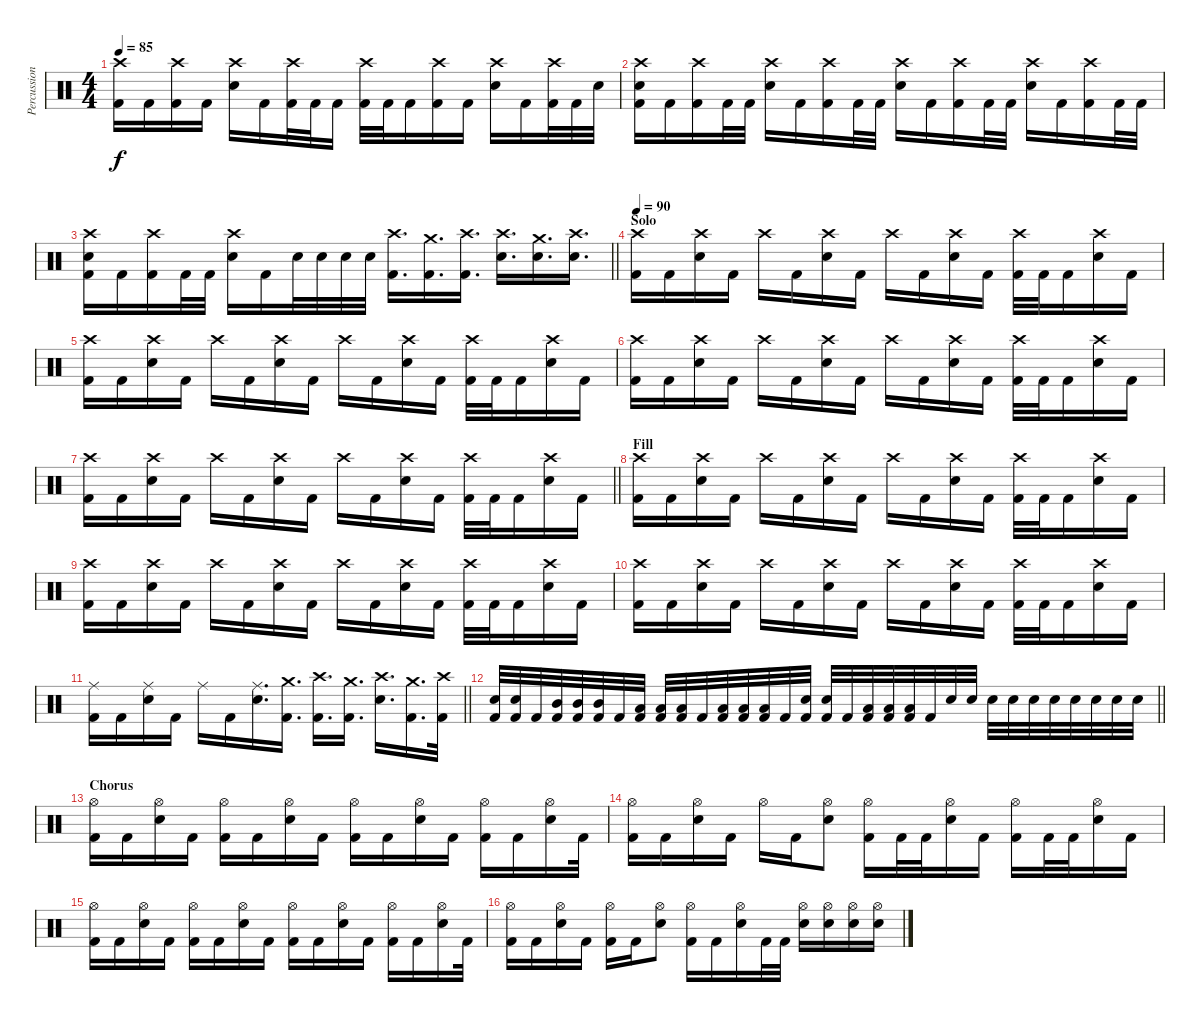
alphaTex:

\track ("Percussion" "Percussion") {instrument percussion}
\staff {score}
\articulation defaults
\ts (4 4)
\tempo 85
\clef neutral
\ks c
("Crash high (hit)" "Kick (hit) 2").16{dy f} "Kick (hit) 2".16 ("Crash high (hit)" "Kick (hit) 2").16 "Kick (hit) 2".16 ("Crash high (hit)" "Snare (hit) 2").16 "Kick (hit) 2".16 ("Crash high (hit)" "Kick (hit) 2").32 "Kick (hit) 2".32 "Kick (hit) 2".16 ("Crash high (hit)" "Kick (hit) 2").32 "Kick (hit) 2".32 "Kick (hit) 2".16 ("Crash high (hit)" "Kick (hit) 2").16 "Kick (hit) 2".16 ("Crash high (hit)" "Snare (hit) 2").16 "Kick (hit) 2".16 ("Crash high (hit)" "Kick (hit) 2").32 "Kick (hit) 2".32 "Snare (hit) 2".32 |
("Crash high (hit)" "Snare (hit) 2" "Kick (hit) 2").16 "Kick (hit) 2".16 ("Crash high (hit)" "Kick (hit) 2").16 "Kick (hit) 2".32 "Kick (hit) 2".32 ("Crash high (hit)" "Snare (hit) 2").16 "Kick (hit) 2".16 ("Crash high (hit)" "Kick (hit) 2").16 "Kick (hit) 2".32 "Kick (hit) 2".32 ("Crash high (hit)" "Snare (hit) 2").16 "Kick (hit) 2".16 ("Crash high (hit)" "Kick (hit) 2").16 "Kick (hit) 2".32 "Kick (hit) 2".32 ("Crash high (hit)" "Snare (hit) 2").16 "Kick (hit) 2".16 ("Crash high (hit)" "Kick (hit) 2").16 "Kick (hit) 2".32 "Kick (hit) 2".32 |
\barLineRight lightlight
("Crash high (hit)" "Snare (hit) 2" "Kick (hit) 2").16 "Kick (hit) 2".16 ("Crash high (hit)" "Kick (hit) 2").16 "Kick (hit) 2".32 "Kick (hit) 2".32 ("Crash high (hit)" "Snare (hit) 2").16 "Kick (hit) 2".16 "Snare (hit) 2".32 "Snare (hit) 2".32 "Snare (hit) 2".32 "Snare (hit) 2".32 ("Crash high (hit)" "Kick (hit) 2").16{d} ("Crash medium (hit)" "Kick (hit) 2").16{d} ("Crash high (hit)" "Kick (hit) 2").16{d} ("Crash high (hit)" "Snare (hit) 2").16{d} ("Crash medium (hit)" "Snare (hit) 2").16{d} ("Crash high (hit)" "Snare (hit) 2").16{d} |
\section ("" "Solo")
\tempo 90
("Crash high (hit)" "Kick (hit) 2").16 "Kick (hit) 2".16 ("Crash high (hit)" "Snare (hit) 2").16 "Kick (hit) 2".16 "Crash high (hit)".16 "Kick (hit) 2".16 ("Crash high (hit)" "Snare (hit) 2").16 "Kick (hit) 2".16 "Crash high (hit)".16 "Kick (hit) 2".16 ("Crash high (hit)" "Snare (hit) 2").16 "Kick (hit) 2".16 ("Crash high (hit)" "Kick (hit) 2").32 "Kick (hit) 2".32 "Kick (hit) 2".16 ("Crash high (hit)" "Snare (hit) 2").16 "Kick (hit) 2".16 |
("Crash high (hit)" "Kick (hit) 2").16 "Kick (hit) 2".16 ("Crash high (hit)" "Snare (hit) 2").16 "Kick (hit) 2".16 "Crash high (hit)".16 "Kick (hit) 2".16 ("Crash high (hit)" "Snare (hit) 2").16 "Kick (hit) 2".16 "Crash high (hit)".16 "Kick (hit) 2".16 ("Crash high (hit)" "Snare (hit) 2").16 "Kick (hit) 2".16 ("Crash high (hit)" "Kick (hit) 2").32 "Kick (hit) 2".32 "Kick (hit) 2".16 ("Crash high (hit)" "Snare (hit) 2").16 "Kick (hit) 2".16 |
("Crash high (hit)" "Kick (hit) 2").16 "Kick (hit) 2".16 ("Crash high (hit)" "Snare (hit) 2").16 "Kick (hit) 2".16 "Crash high (hit)".16 "Kick (hit) 2".16 ("Crash high (hit)" "Snare (hit) 2").16 "Kick (hit) 2".16 "Crash high (hit)".16 "Kick (hit) 2".16 ("Crash high (hit)" "Snare (hit) 2").16 "Kick (hit) 2".16 ("Crash high (hit)" "Kick (hit) 2").32 "Kick (hit) 2".32 "Kick (hit) 2".16 ("Crash high (hit)" "Snare (hit) 2").16 "Kick (hit) 2".16 |
\barLineRight lightlight
("Crash high (hit)" "Kick (hit) 2").16 "Kick (hit) 2".16 ("Crash high (hit)" "Snare (hit) 2").16 "Kick (hit) 2".16 "Crash high (hit)".16 "Kick (hit) 2".16 ("Crash high (hit)" "Snare (hit) 2").16 "Kick (hit) 2".16 "Crash high (hit)".16 "Kick (hit) 2".16 ("Crash high (hit)" "Snare (hit) 2").16 "Kick (hit) 2".16 ("Crash high (hit)" "Kick (hit) 2").32 "Kick (hit) 2".32 "Kick (hit) 2".16 ("Crash high (hit)" "Snare (hit) 2").16 "Kick (hit) 2".16 |
\section ("" "Fill")
("Crash high (hit)" "Kick (hit) 2").16 "Kick (hit) 2".16 ("Crash high (hit)" "Snare (hit) 2").16 "Kick (hit) 2".16 "Crash high (hit)".16 "Kick (hit) 2".16 ("Crash high (hit)" "Snare (hit) 2").16 "Kick (hit) 2".16 "Crash high (hit)".16 "Kick (hit) 2".16 ("Crash high (hit)" "Snare (hit) 2").16 "Kick (hit) 2".16 ("Crash high (hit)" "Kick (hit) 2").32 "Kick (hit) 2".32 "Kick (hit) 2".16 ("Crash high (hit)" "Snare (hit) 2").16 "Kick (hit) 2".16 |
("Crash high (hit)" "Kick (hit) 2").16 "Kick (hit) 2".16 ("Crash high (hit)" "Snare (hit) 2").16 "Kick (hit) 2".16 "Crash high (hit)".16 "Kick (hit) 2".16 ("Crash high (hit)" "Snare (hit) 2").16 "Kick (hit) 2".16 "Crash high (hit)".16 "Kick (hit) 2".16 ("Crash high (hit)" "Snare (hit) 2").16 "Kick (hit) 2".16 ("Crash high (hit)" "Kick (hit) 2").32 "Kick (hit) 2".32 "Kick (hit) 2".16 ("Crash high (hit)" "Snare (hit) 2").16 "Kick (hit) 2".16 |
("Crash high (hit)" "Kick (hit) 2").16 "Kick (hit) 2".16 ("Crash high (hit)" "Snare (hit) 2").16 "Kick (hit) 2".16 "Crash high (hit)".16 "Kick (hit) 2".16 ("Crash high (hit)" "Snare (hit) 2").16 "Kick (hit) 2".16 "Crash high (hit)".16 "Kick (hit) 2".16 ("Crash high (hit)" "Snare (hit) 2").16 "Kick (hit) 2".16 ("Crash high (hit)" "Kick (hit) 2").32 "Kick (hit) 2".32 "Kick (hit) 2".16 ("Crash high (hit)" "Snare (hit) 2").16 "Kick (hit) 2".16 |
\barLineRight lightlight
("Ride (middle)" "Kick (hit) 2").16 "Kick (hit) 2".16 ("Ride (middle)" "Snare (hit) 2").16 "Kick (hit) 2".16 "Ride (middle)".16 "Kick (hit) 2".16 ("Ride (middle)" "Snare (hit) 2").16{d} ("Crash medium (hit)" "Kick (hit) 2").16{d} ("Crash high (hit)" "Kick (hit) 2").16{d} ("Crash medium (hit)" "Kick (hit) 2").16{d} ("Crash high (hit)" "Snare (hit) 2").16{d} ("Crash medium (hit)" "Kick (hit) 2").16{d} ("Crash high (hit)" "Kick (hit) 2").32 |
\barLineRight lightlight
("Snare (hit) 2" "Kick (hit) 2").32 ("Snare (hit) 2" "Kick (hit) 2").32{beam merge} "Kick (hit) 2".32{beam merge} ("Mid Tom (hit)" "Kick (hit) 2").32 ("Mid Tom (hit)" "Kick (hit) 2").32 ("Mid Tom (hit)" "Kick (hit) 2").32{beam merge} "Kick (hit) 2".32 ("Low Tom (hit)" "Kick (hit) 2").32 ("Low Tom (hit)" "Kick (hit) 2").32 ("Low Tom (hit)" "Kick (hit) 2").32 "Kick (hit) 2".32 ("Low Floor Tom (hit)" "Kick (hit) 2").32 ("Low Floor Tom (hit)" "Kick (hit) 2").32{beam merge} ("Low Floor Tom (hit)" "Kick (hit) 2").32 "Kick (hit) 2".32 ("Snare (hit) 2" "Kick (hit) 2").32 ("Snare (hit) 2" "Kick (hit) 2").32 "Kick (hit) 2".32 ("Low Floor Tom (hit)" "Kick (hit) 2").32 ("Low Floor Tom (hit)" "Kick (hit) 2").32{beam merge} ("Low Floor Tom (hit)" "Kick (hit) 2").32 "Kick (hit) 2".32 "Snare (hit) 2".32{beam merge} "Snare (hit) 2".32 "Snare (hit) 2".32 "Snare (hit) 2".32{beam merge} "Snare (hit) 2".32 "Snare (hit) 2".32 "Snare (hit) 2".32 "Snare (hit) 2".32 "Snare (hit) 2".32 "Snare (hit) 2".32 |
\section ("" "Chorus")
("Hi-Hat (open)" "Kick (hit) 2").16 "Kick (hit) 2".16 ("Hi-Hat (open)" "Snare (hit) 2").16 "Kick (hit) 2".16 ("Hi-Hat (open)" "Kick (hit) 2").16 "Kick (hit) 2".16 ("Hi-Hat (open)" "Snare (hit) 2").16 "Kick (hit) 2".16 ("Hi-Hat (open)" "Kick (hit) 2").16 "Kick (hit) 2".16 ("Hi-Hat (open)" "Snare (hit) 2").16 "Kick (hit) 2".16 ("Hi-Hat (open)" "Kick (hit) 2").16 "Kick (hit) 2".16 ("Hi-Hat (open)" "Snare (hit) 2").16 "Kick (hit) 2".32 |
("Hi-Hat (open)" "Kick (hit) 2").16 "Kick (hit) 2".16 ("Hi-Hat (open)" "Snare (hit) 2").16 "Kick (hit) 2".16 "Hi-Hat (open)".16 "Kick (hit) 2".16 ("Hi-Hat (open)" "Snare (hit) 2").8 ("Hi-Hat (open)" "Kick (hit) 2").16 "Kick (hit) 2".32 "Kick (hit) 2".32 ("Hi-Hat (open)" "Snare (hit) 2").16 "Kick (hit) 2".16 ("Hi-Hat (open)" "Kick (hit) 2").16 "Kick (hit) 2".32 "Kick (hit) 2".32 ("Hi-Hat (open)" "Snare (hit) 2").16 "Kick (hit) 2".16 |
("Hi-Hat (open)" "Kick (hit) 2").16 "Kick (hit) 2".16 ("Hi-Hat (open)" "Snare (hit) 2").16 "Kick (hit) 2".16 ("Hi-Hat (open)" "Kick (hit) 2").16 "Kick (hit) 2".16 ("Hi-Hat (open)" "Snare (hit) 2").16 "Kick (hit) 2".16 ("Hi-Hat (open)" "Kick (hit) 2").16 "Kick (hit) 2".16 ("Hi-Hat (open)" "Snare (hit) 2").16 "Kick (hit) 2".16 ("Hi-Hat (open)" "Kick (hit) 2").16 "Kick (hit) 2".16 ("Hi-Hat (open)" "Snare (hit) 2").16 "Kick (hit) 2".32 |
("Hi-Hat (open)" "Kick (hit) 2").16 "Kick (hit) 2".16 ("Hi-Hat (open)" "Snare (hit) 2").16 "Kick (hit) 2".16 ("Hi-Hat (open)" "Kick (hit) 2").16 "Kick (hit) 2".16 ("Hi-Hat (open)" "Snare (hit) 2").8 ("Hi-Hat (open)" "Kick (hit) 2").16 "Kick (hit) 2".16 ("Hi-Hat (open)" "Snare (hit) 2").16 "Kick (hit) 2".32 "Kick (hit) 2".32 ("Hi-Hat (open)" "Snare (hit) 2").16 ("Hi-Hat (open)" "Snare (hit) 2").16 ("Hi-Hat (open)" "Snare (hit) 2").16 ("Hi-Hat (open)" "Snare (hit) 2").16
